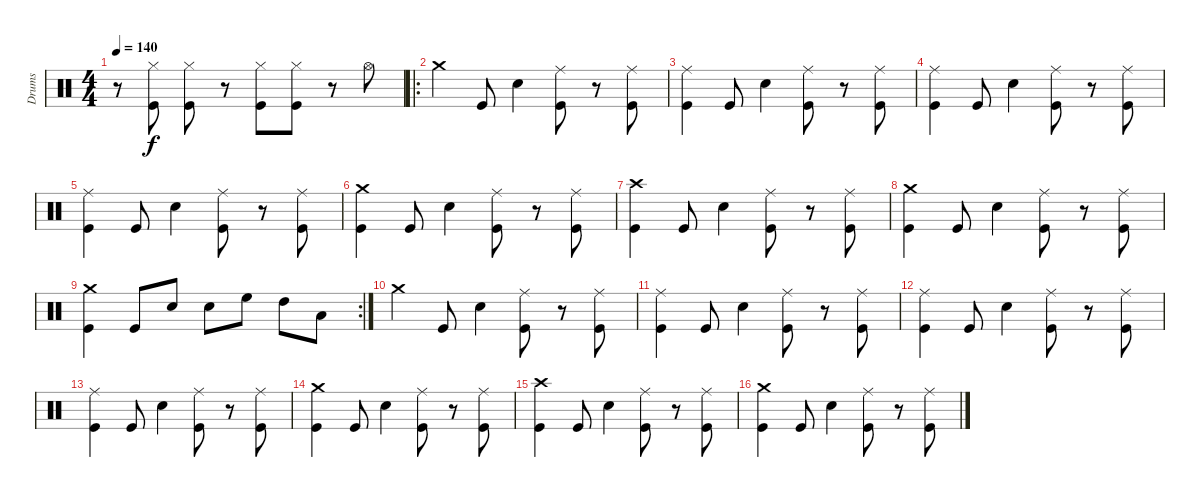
\track ("Drums" "Drums") {instrument percussion}
\staff {score}
\articulation defaults
\ts (4 4)
\tempo 140
\clef neutral
\ks c
r.8{dy f} ("Hi-Hat (closed)" "Kick (hit)").8 ("Hi-Hat (closed)" "Kick (hit)").8 r.8 ("Hi-Hat (closed)" "Kick (hit)").8 ("Hi-Hat (closed)" "Kick (hit)").8 r.8 "Hi-Hat (open)".8 |
\ro "Crash medium (hit)".4 "Kick (hit)".8 "Electric Snare (hit)".4
("Ride (middle)" "Kick (hit)").8 r.8 ("Ride (middle)" "Kick (hit)").8 |
("Ride (middle)" "Kick (hit)").4 "Kick (hit)".8 "Electric Snare (hit)".4 ("Ride (middle)" "Kick (hit)").8 r.8 ("Ride (middle)" "Kick (hit)").8 |
("Ride (middle)" "Kick (hit)").4 "Kick (hit)".8 "Electric Snare (hit)".4 ("Ride (middle)" "Kick (hit)").8 r.8 ("Ride (middle)" "Kick (hit)").8 |
("Ride (middle)" "Kick (hit)").4 "Kick (hit)".8 "Electric Snare (hit)".4 ("Ride (middle)" "Kick (hit)").8 r.8 ("Ride (middle)" "Kick (hit)").8 |
("Crash medium (hit)" "Kick (hit)").4 "Kick (hit)".8 "Electric Snare (hit)".4 ("Ride (middle)" "Kick (hit)").8 r.8 ("Ride (middle)" "Kick (hit)").8 |
("Crash high (hit)" "Kick (hit)").4 "Kick (hit)".8 "Electric Snare (hit)".4 ("Ride (middle)" "Kick (hit)").8 r.8 ("Ride (middle)" "Kick (hit)").8 |
("Crash medium (hit)" "Kick (hit)").4 "Kick (hit)".8 "Electric Snare (hit)".4 ("Ride (middle)" "Kick (hit)").8 r.8 ("Ride (middle)" "Kick (hit)").8 |
\rc 2
("Crash medium (hit)" "Kick (hit)").4 "Kick (hit)".8 "Electric Snare (hit)".8 "Electric Snare (hit)".8 "High Floor Tom (hit)".8 "High Tom (hit)".8 "Low Tom (hit)".8 |
"Crash medium (hit)".4 "Kick (hit)".8 "Electric Snare (hit)".4 ("Ride (middle)" "Kick (hit)").8 r.8 ("Ride (middle)" "Kick (hit)").8 |
("Ride (middle)" "Kick (hit)").4 "Kick (hit)".8 "Electric Snare (hit)".4 ("Ride (middle)" "Kick (hit)").8 r.8 ("Ride (middle)" "Kick (hit)").8 |
("Ride (middle)" "Kick (hit)").4 "Kick (hit)".8 "Electric Snare (hit)".4 ("Ride (middle)" "Kick (hit)").8 r.8 ("Ride (middle)" "Kick (hit)").8 |
("Ride (middle)" "Kick (hit)").4 "Kick (hit)".8 "Electric Snare (hit)".4 ("Ride (middle)" "Kick (hit)").8 r.8 ("Ride (middle)" "Kick (hit)").8 |
("Crash medium (hit)" "Kick (hit)").4 "Kick (hit)".8 "Electric Snare (hit)".4 ("Ride (middle)" "Kick (hit)").8 r.8 ("Ride (middle)" "Kick (hit)").8 |
("Crash high (hit)" "Kick (hit)").4 "Kick (hit)".8 "Electric Snare (hit)".4 ("Ride (middle)" "Kick (hit)").8 r.8 ("Ride (middle)" "Kick (hit)").8 |
("Crash medium (hit)" "Kick (hit)").4 "Kick (hit)".8 "Electric Snare (hit)".4 ("Ride (middle)" "Kick (hit)").8 r.8 ("Ride (middle)" "Kick (hit)").8
